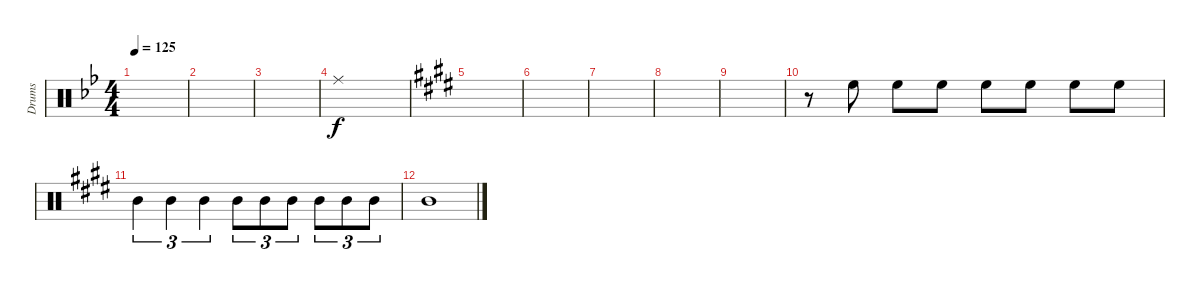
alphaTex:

\track ("Drums" "Drums") {instrument percussion}
\staff {score}
\articulation defaults
\ts (4 4)
\tempo 125
\clef neutral
\ks bb
|
|
|
"Ride (middle)".1 |
\ks e
|
|
|
|
|
r.8 "High Floor Tom (hit)".8 "High Floor Tom (hit)".8 "High Floor Tom (hit)".8 "High Floor Tom (hit)".8 "High Floor Tom (hit)".8 "High Floor Tom (hit)".8 "High Floor Tom (hit)".8 |
"Mid Tom (hit)".4{tu (3 2)} "Mid Tom (hit)".4{tu (3 2)} "Mid Tom (hit)".4{tu (3 2)} "Mid Tom (hit)".8{tu (3 2) volume 9} "Mid Tom (hit)".8{tu (3 2)} "Mid Tom (hit)".8{tu (3 2)} "Mid Tom (hit)".8{tu (3 2)} "Mid Tom (hit)".8{tu (3 2)} "Mid Tom (hit)".8{tu (3 2)} |
"Mid Tom (hit)".1{volume 13}
